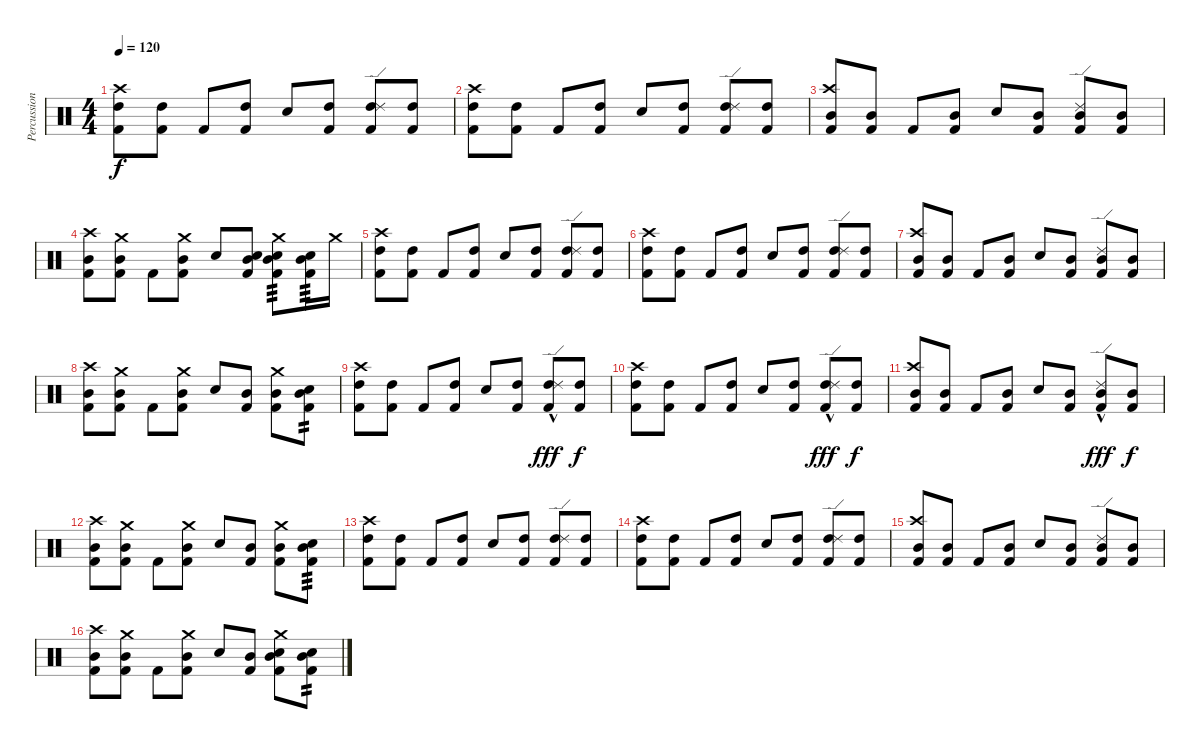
\track ("Percussion" "Percussion") {instrument percussion}
\staff {score}
\articulation defaults
\ts (4 4)
\tempo 120
\clef neutral
\ks c
("Kick (hit) 2" "High Tom (hit)" "Crash high (hit)").8{dy f} ("Kick (hit) 2" "High Tom (hit)").8 "Kick (hit) 2".8 ("Kick (hit) 2" "High Tom (hit)").8 "Electric Snare (hit)".8 ("Kick (hit) 2" "High Tom (hit)").8 ("Kick (hit) 2" "High Tom (hit)" "Ride (edge) 2").8 ("Kick (hit) 2" "High Tom (hit)").8 |
("Kick (hit) 2" "High Tom (hit)" "Crash high (hit)").8 ("Kick (hit) 2" "High Tom (hit)").8 "Kick (hit) 2".8 ("Kick (hit) 2" "High Tom (hit)").8 "Electric Snare (hit)".8 ("Kick (hit) 2" "High Tom (hit)").8 ("Kick (hit) 2" "High Tom (hit)" "Ride (edge) 2").8 ("Kick (hit) 2" "High Tom (hit)").8 |
("Kick (hit) 2" "Mid Tom (hit)" "Crash high (hit)").8 ("Kick (hit) 2" "Mid Tom (hit)").8 "Kick (hit) 2".8 ("Kick (hit) 2" "Mid Tom (hit)").8 "Electric Snare (hit)".8 ("Kick (hit) 2" "Mid Tom (hit)").8 ("Kick (hit) 2" "Mid Tom (hit)" "Ride (edge) 2").8 ("Kick (hit) 2" "Mid Tom (hit)").8 |
("Kick (hit) 2" "Mid Tom (hit)" "Crash high (hit)").8 ("Kick (hit) 2" "Mid Tom (hit)" "Crash medium (hit)").8 "Kick (hit) 2".8 ("Kick (hit) 2" "Mid Tom (hit)" "Crash medium (hit)").8 "Electric Snare (hit)".8 ("Kick (hit) 2" "Electric Snare (hit)" "Mid Tom (hit)").8 ("Kick (hit) 2" "Electric Snare (hit)" "Mid Tom (hit)" "Crash medium (hit)").8{tp 3} ("Kick (hit) 2" "Electric Snare (hit)" "Mid Tom (hit)").16{tp 3} "Crash medium (hit)".16 |
("Kick (hit) 2" "High Tom (hit)" "Crash high (hit)").8 ("Kick (hit) 2" "High Tom (hit)").8 "Kick (hit) 2".8 ("Kick (hit) 2" "High Tom (hit)").8 "Electric Snare (hit)".8 ("Kick (hit) 2" "High Tom (hit)").8 ("Kick (hit) 2" "High Tom (hit)" "Ride (edge) 2").8 ("Kick (hit) 2" "High Tom (hit)").8 |
("Kick (hit) 2" "High Tom (hit)" "Crash high (hit)").8 ("Kick (hit) 2" "High Tom (hit)").8 "Kick (hit) 2".8 ("Kick (hit) 2" "High Tom (hit)").8 "Electric Snare (hit)".8 ("Kick (hit) 2" "High Tom (hit)").8 ("Kick (hit) 2" "High Tom (hit)" "Ride (edge) 2").8 ("Kick (hit) 2" "High Tom (hit)").8 |
("Kick (hit) 2" "Mid Tom (hit)" "Crash high (hit)").8 ("Kick (hit) 2" "Mid Tom (hit)").8 "Kick (hit) 2".8 ("Kick (hit) 2" "Mid Tom (hit)").8 "Electric Snare (hit)".8 ("Kick (hit) 2" "Mid Tom (hit)").8 ("Kick (hit) 2" "Mid Tom (hit)" "Ride (edge) 2").8 ("Kick (hit) 2" "Mid Tom (hit)").8 |
("Kick (hit) 2" "Mid Tom (hit)" "Crash high (hit)").8 ("Kick (hit) 2" "Mid Tom (hit)" "Crash medium (hit)").8 "Kick (hit) 2".8 ("Kick (hit) 2" "Mid Tom (hit)" "Crash medium (hit)").8 "Electric Snare (hit)".8 ("Kick (hit) 2" "Mid Tom (hit)").8 ("Kick (hit) 2" "Mid Tom (hit)" "Crash medium (hit)").8 ("Kick (hit) 2" "Electric Snare (hit)" "Mid Tom (hit)").8{tp 2} |
("Kick (hit) 2" "High Tom (hit)" "Crash high (hit)").8 ("Kick (hit) 2" "High Tom (hit)").8 "Kick (hit) 2".8 ("Kick (hit) 2" "High Tom (hit)").8 "Electric Snare (hit)".8 ("Kick (hit) 2" "High Tom (hit)").8 ("Kick (hit) 2" "High Tom (hit)" "Ride (edge) 2"{hac}).8{dy fff} ("Kick (hit) 2" "High Tom (hit)").8{dy f} |
("Kick (hit) 2" "High Tom (hit)" "Crash high (hit)").8 ("Kick (hit) 2" "High Tom (hit)").8 "Kick (hit) 2".8 ("Kick (hit) 2" "High Tom (hit)").8 "Electric Snare (hit)".8 ("Kick (hit) 2" "High Tom (hit)").8 ("Kick (hit) 2" "High Tom (hit)" "Ride (edge) 2"{hac}).8{dy fff} ("Kick (hit) 2" "High Tom (hit)").8{dy f} |
("Kick (hit) 2" "Mid Tom (hit)" "Crash high (hit)").8 ("Kick (hit) 2" "Mid Tom (hit)").8 "Kick (hit) 2".8 ("Kick (hit) 2" "Mid Tom (hit)").8 "Electric Snare (hit)".8 ("Kick (hit) 2" "Mid Tom (hit)").8 ("Kick (hit) 2" "Mid Tom (hit)" "Ride (edge) 2"{hac}).8{dy fff} ("Kick (hit) 2" "Mid Tom (hit)").8{dy f} |
("Kick (hit) 2" "Mid Tom (hit)" "Crash high (hit)").8 ("Kick (hit) 2" "Mid Tom (hit)" "Crash medium (hit)").8 "Kick (hit) 2".8 ("Kick (hit) 2" "Mid Tom (hit)" "Crash medium (hit)").8 "Electric Snare (hit)".8 ("Kick (hit) 2" "Mid Tom (hit)").8 ("Kick (hit) 2" "Mid Tom (hit)" "Crash medium (hit)").8 ("Kick (hit) 2" "Electric Snare (hit)" "Mid Tom (hit)").8{tp 3} |
("Kick (hit) 2" "High Tom (hit)" "Crash high (hit)").8 ("Kick (hit) 2" "High Tom (hit)").8 "Kick (hit) 2".8 ("Kick (hit) 2" "High Tom (hit)").8 "Electric Snare (hit)".8 ("Kick (hit) 2" "High Tom (hit)").8 ("Kick (hit) 2" "High Tom (hit)" "Ride (edge) 2").8 ("Kick (hit) 2" "High Tom (hit)").8 |
("Kick (hit) 2" "High Tom (hit)" "Crash high (hit)").8 ("Kick (hit) 2" "High Tom (hit)").8 "Kick (hit) 2".8 ("Kick (hit) 2" "High Tom (hit)").8 "Electric Snare (hit)".8 ("Kick (hit) 2" "High Tom (hit)").8 ("Kick (hit) 2" "High Tom (hit)" "Ride (edge) 2").8 ("Kick (hit) 2" "High Tom (hit)").8 |
("Kick (hit) 2" "Mid Tom (hit)" "Crash high (hit)").8 ("Kick (hit) 2" "Mid Tom (hit)").8 "Kick (hit) 2".8 ("Kick (hit) 2" "Mid Tom (hit)").8 "Electric Snare (hit)".8 ("Kick (hit) 2" "Mid Tom (hit)").8 ("Kick (hit) 2" "Mid Tom (hit)" "Ride (edge) 2").8 ("Kick (hit) 2" "Mid Tom (hit)").8 |
("Kick (hit) 2" "Mid Tom (hit)" "Crash high (hit)").8 ("Kick (hit) 2" "Mid Tom (hit)" "Crash medium (hit)").8 "Kick (hit) 2".8 ("Kick (hit) 2" "Mid Tom (hit)" "Crash medium (hit)").8 "Electric Snare (hit)".8 ("Kick (hit) 2" "Mid Tom (hit)").8 ("Kick (hit) 2" "Electric Snare (hit)" "Mid Tom (hit)" "Crash medium (hit)").8 ("Kick (hit) 2" "Electric Snare (hit)" "Mid Tom (hit)").8{tp 2}
